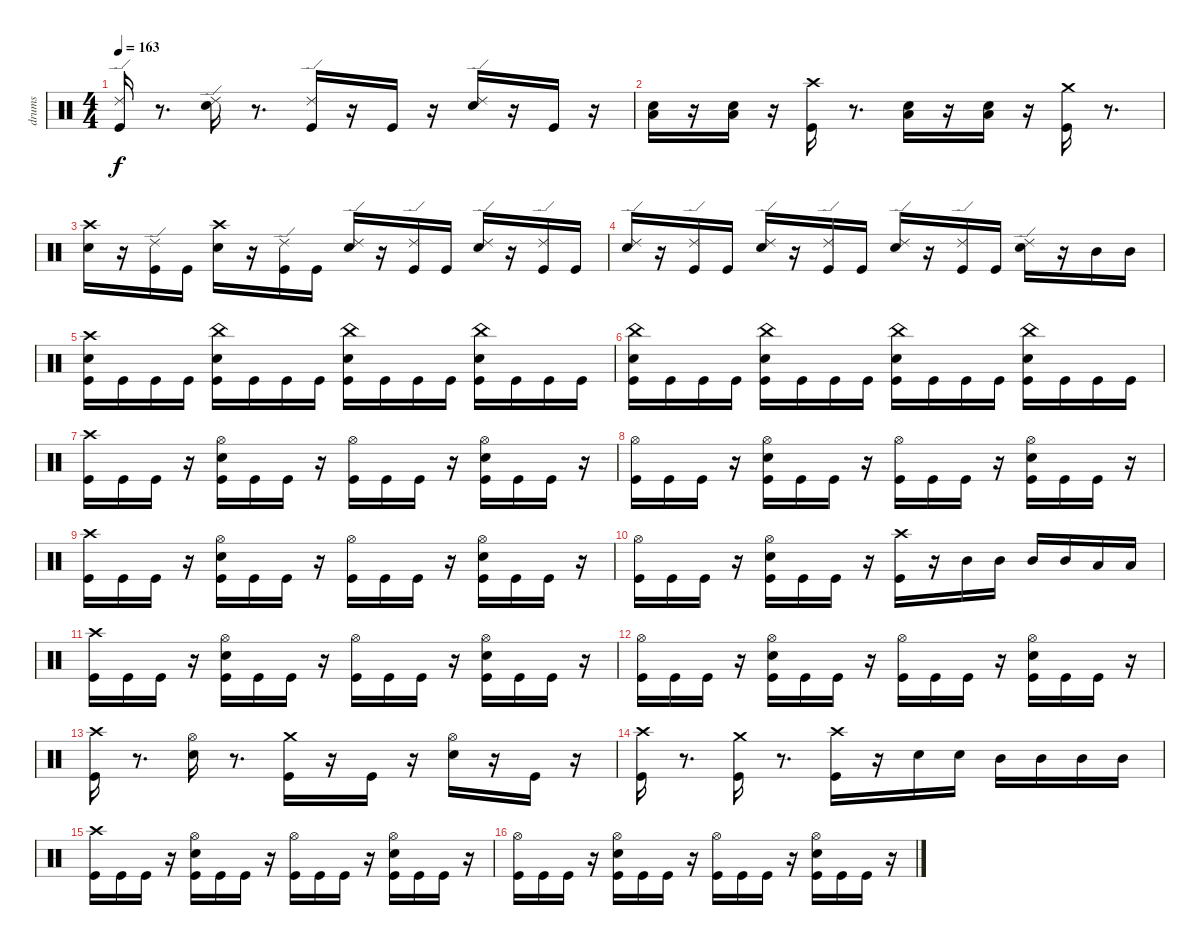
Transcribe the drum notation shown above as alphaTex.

\track ("drums" "drums") {instrument percussion}
\staff {score}
\articulation defaults
\ts (4 4)
\tempo 163
\clef neutral
\ks c
("Ride (edge) 2" "Kick (hit)").16{dy f} r.8{d} ("Ride (edge) 2" "Snare (hit) 2").16 r.8{d} ("Ride (edge) 2" "Kick (hit)").16 r.16 "Kick (hit)".16 r.16 ("Ride (edge) 2" "Snare (hit) 2").16 r.16 "Kick (hit)".16 r.16 |
("Snare (hit) 2" "Low Tom (hit)").16 r.16 ("Snare (hit) 2" "Low Tom (hit)").16 r.16 ("Kick (hit)" "Crash high (hit)").16 r.8{d} ("Snare (hit) 2" "Low Tom (hit)").16 r.16 ("Snare (hit) 2" "Low Tom (hit)").16 r.16 ("Crash medium (hit)" "Kick (hit)").16 r.8{d} |
("Crash high (hit)" "Snare (hit) 2").16 r.16 ("Ride (edge) 2" "Kick (hit)").16 "Kick (hit)".16 ("Crash high (hit)" "Snare (hit) 2").16 r.16 ("Ride (edge) 2" "Kick (hit)").16 "Kick (hit)".16 ("Ride (edge) 2" "Snare (hit) 2").16 r.16 ("Ride (edge) 2" "Kick (hit)").16 "Kick (hit)".16 ("Ride (edge) 2" "Snare (hit) 2").16 r.16 ("Ride (edge) 2" "Kick (hit)").16 "Kick (hit)".16 |
("Ride (edge) 2" "Snare (hit) 2").16 r.16 ("Ride (edge) 2" "Kick (hit)").16 "Kick (hit)".16 ("Ride (edge) 2" "Snare (hit) 2").16 r.16 ("Ride (edge) 2" "Kick (hit)").16 "Kick (hit)".16 ("Ride (edge) 2" "Snare (hit) 2").16 r.16 ("Ride (edge) 2" "Kick (hit)").16 "Kick (hit)".16 ("Ride (edge) 2" "Snare (hit) 2").16 r.16 "Mid Tom (hit)".16 "Mid Tom (hit)".16 |
("Crash high (hit)" "Kick (hit)" "Snare (hit) 2").16 "Kick (hit)".16 "Kick (hit)".16 "Kick (hit)".16 ("Kick (hit)" "China (hit)" "Snare (hit) 2").16 "Kick (hit)".16 "Kick (hit)".16 "Kick (hit)".16 ("Kick (hit)" "China (hit)" "Snare (hit) 2").16 "Kick (hit)".16 "Kick (hit)".16 "Kick (hit)".16 ("Kick (hit)" "China (hit)" "Snare (hit) 2").16 "Kick (hit)".16 "Kick (hit)".16 "Kick (hit)".16 |
("China (hit)" "Kick (hit)" "Snare (hit) 2").16 "Kick (hit)".16 "Kick (hit)".16 "Kick (hit)".16 ("China (hit)" "Kick (hit)" "Snare (hit) 2").16 "Kick (hit)".16 "Kick (hit)".16 "Kick (hit)".16 ("China (hit)" "Kick (hit)" "Snare (hit) 2").16 "Kick (hit)".16 "Kick (hit)".16 "Kick (hit)".16 ("China (hit)" "Kick (hit)" "Snare (hit) 2").16 "Kick (hit)".16 "Kick (hit)".16 "Kick (hit)".16 |
("Crash high (hit)" "Kick (hit)").16 "Kick (hit)".16 "Kick (hit)".16 r.16 ("Kick (hit)" "Hi-Hat (open)" "Snare (hit) 2").16 "Kick (hit)".16 "Kick (hit)".16 r.16 ("Hi-Hat (open)" "Kick (hit)").16 "Kick (hit)".16 "Kick (hit)".16 r.16 ("Kick (hit)" "Hi-Hat (open)" "Snare (hit) 2").16 "Kick (hit)".16 "Kick (hit)".16 r.16 |
("Hi-Hat (open)" "Kick (hit)").16 "Kick (hit)".16 "Kick (hit)".16 r.16 ("Kick (hit)" "Hi-Hat (open)" "Snare (hit) 2").16 "Kick (hit)".16 "Kick (hit)".16 r.16 ("Hi-Hat (open)" "Kick (hit)").16 "Kick (hit)".16 "Kick (hit)".16 r.16 ("Kick (hit)" "Hi-Hat (open)" "Snare (hit) 2").16 "Kick (hit)".16 "Kick (hit)".16 r.16 |
("Crash high (hit)" "Kick (hit)").16 "Kick (hit)".16 "Kick (hit)".16 r.16 ("Hi-Hat (open)" "Snare (hit) 2" "Kick (hit)").16 "Kick (hit)".16 "Kick (hit)".16 r.16 ("Hi-Hat (open)" "Kick (hit)").16 "Kick (hit)".16 "Kick (hit)".16 r.16 ("Hi-Hat (open)" "Snare (hit) 2" "Kick (hit)").16 "Kick (hit)".16 "Kick (hit)".16 r.16 |
("Hi-Hat (open)" "Kick (hit)").16 "Kick (hit)".16 "Kick (hit)".16 r.16 ("Hi-Hat (open)" "Snare (hit) 2" "Kick (hit)").16 "Kick (hit)".16 "Kick (hit)".16 r.16 ("Crash high (hit)" "Kick (hit)").16 r.16 "Mid Tom (hit)".16 "Mid Tom (hit)".16 "Mid Tom (hit)".16 "Mid Tom (hit)".16 "Low Tom (hit)".16 "Low Tom (hit)".16 |
("Crash high (hit)" "Kick (hit)").16 "Kick (hit)".16 "Kick (hit)".16 r.16 ("Kick (hit)" "Hi-Hat (open)" "Snare (hit) 2").16 "Kick (hit)".16 "Kick (hit)".16 r.16 ("Hi-Hat (open)" "Kick (hit)").16 "Kick (hit)".16 "Kick (hit)".16 r.16 ("Kick (hit)" "Hi-Hat (open)" "Snare (hit) 2").16 "Kick (hit)".16 "Kick (hit)".16 r.16 |
("Hi-Hat (open)" "Kick (hit)").16 "Kick (hit)".16 "Kick (hit)".16 r.16 ("Kick (hit)" "Hi-Hat (open)" "Snare (hit) 2").16 "Kick (hit)".16 "Kick (hit)".16 r.16 ("Hi-Hat (open)" "Kick (hit)").16 "Kick (hit)".16 "Kick (hit)".16 r.16 ("Kick (hit)" "Hi-Hat (open)" "Snare (hit) 2").16 "Kick (hit)".16 "Kick (hit)".16 r.16 |
("Crash high (hit)" "Kick (hit)").16 r.8{d} ("Hi-Hat (open)" "Snare (hit) 2").16 r.8{d} ("Crash medium (hit)" "Kick (hit)").16 r.16 "Kick (hit)".16 r.16 ("Hi-Hat (open)" "Snare (hit) 2").16 r.16 "Kick (hit)".16 r.16 |
("Kick (hit)" "Crash high (hit)").16 r.8{d} ("Kick (hit)" "Crash medium (hit)").16 r.8{d} ("Kick (hit)" "Crash high (hit)").16 r.16 "Snare (hit) 2".16 "Snare (hit) 2".16 "Mid Tom (hit)".16 "Mid Tom (hit)".16 "Mid Tom (hit)".16 "Mid Tom (hit)".16 |
("Crash high (hit)" "Kick (hit)").16 "Kick (hit)".16 "Kick (hit)".16 r.16 ("Kick (hit)" "Hi-Hat (open)" "Snare (hit) 2").16 "Kick (hit)".16 "Kick (hit)".16 r.16 ("Hi-Hat (open)" "Kick (hit)").16 "Kick (hit)".16 "Kick (hit)".16 r.16 ("Kick (hit)" "Hi-Hat (open)" "Snare (hit) 2").16 "Kick (hit)".16 "Kick (hit)".16 r.16 |
("Hi-Hat (open)" "Kick (hit)").16 "Kick (hit)".16 "Kick (hit)".16 r.16 ("Kick (hit)" "Hi-Hat (open)" "Snare (hit) 2").16 "Kick (hit)".16 "Kick (hit)".16 r.16 ("Hi-Hat (open)" "Kick (hit)").16 "Kick (hit)".16 "Kick (hit)".16 r.16 ("Kick (hit)" "Hi-Hat (open)" "Snare (hit) 2").16 "Kick (hit)".16 "Kick (hit)".16 r.16
